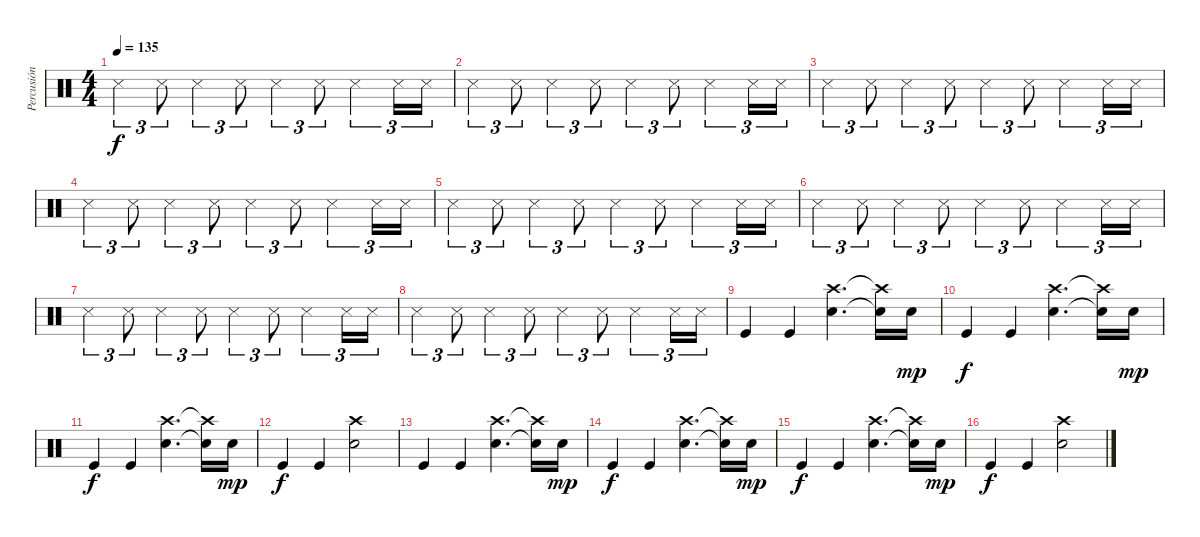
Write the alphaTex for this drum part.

\track ("Percusión" "Percusión") {instrument percussion}
\staff {score}
\articulation defaults
\ts (4 4)
\tempo 135
\clef neutral
\ks c "Snare (side stick) 3".4{tu (3 2) dy f} "Snare (side stick) 3".8{tu (3 2)} "Snare (side stick) 3".4{tu (3 2)} "Snare (side stick) 3".8{tu (3 2)} "Snare (side stick) 3".4{tu (3 2)} "Snare (side stick) 3".8{tu (3 2)} "Snare (side stick) 3".4{tu (3 2)} "Snare (side stick) 3".16{tu (3 2)} "Snare (side stick) 3".16{tu (3 2)}
|
"Snare (side stick) 3".4{tu (3 2)} "Snare (side stick) 3".8{tu (3 2)} "Snare (side stick) 3".4{tu (3 2)} "Snare (side stick) 3".8{tu (3 2)} "Snare (side stick) 3".4{tu (3 2)} "Snare (side stick) 3".8{tu (3 2)} "Snare (side stick) 3".4{tu (3 2)} "Snare (side stick) 3".16{tu (3 2)} "Snare (side stick) 3".16{tu (3 2)} |
"Snare (side stick) 3".4{tu (3 2)} "Snare (side stick) 3".8{tu (3 2)} "Snare (side stick) 3".4{tu (3 2)} "Snare (side stick) 3".8{tu (3 2)} "Snare (side stick) 3".4{tu (3 2)} "Snare (side stick) 3".8{tu (3 2)} "Snare (side stick) 3".4{tu (3 2)} "Snare (side stick) 3".16{tu (3 2)} "Snare (side stick) 3".16{tu (3 2)} |
"Snare (side stick) 3".4{tu (3 2)} "Snare (side stick) 3".8{tu (3 2)} "Snare (side stick) 3".4{tu (3 2)} "Snare (side stick) 3".8{tu (3 2)} "Snare (side stick) 3".4{tu (3 2)} "Snare (side stick) 3".8{tu (3 2)} "Snare (side stick) 3".4{tu (3 2)} "Snare (side stick) 3".16{tu (3 2)} "Snare (side stick) 3".16{tu (3 2)} |
"Snare (side stick) 3".4{tu (3 2)} "Snare (side stick) 3".8{tu (3 2)} "Snare (side stick) 3".4{tu (3 2)} "Snare (side stick) 3".8{tu (3 2)} "Snare (side stick) 3".4{tu (3 2)} "Snare (side stick) 3".8{tu (3 2)} "Snare (side stick) 3".4{tu (3 2)} "Snare (side stick) 3".16{tu (3 2)} "Snare (side stick) 3".16{tu (3 2)} |
"Snare (side stick) 3".4{tu (3 2)} "Snare (side stick) 3".8{tu (3 2)} "Snare (side stick) 3".4{tu (3 2)} "Snare (side stick) 3".8{tu (3 2)} "Snare (side stick) 3".4{tu (3 2)} "Snare (side stick) 3".8{tu (3 2)} "Snare (side stick) 3".4{tu (3 2)} "Snare (side stick) 3".16{tu (3 2)} "Snare (side stick) 3".16{tu (3 2)} |
"Snare (side stick) 3".4{tu (3 2)} "Snare (side stick) 3".8{tu (3 2)} "Snare (side stick) 3".4{tu (3 2)} "Snare (side stick) 3".8{tu (3 2)} "Snare (side stick) 3".4{tu (3 2)} "Snare (side stick) 3".8{tu (3 2)} "Snare (side stick) 3".4{tu (3 2)} "Snare (side stick) 3".16{tu (3 2)} "Snare (side stick) 3".16{tu (3 2)} |
"Snare (side stick) 3".4{tu (3 2)} "Snare (side stick) 3".8{tu (3 2)} "Snare (side stick) 3".4{tu (3 2)} "Snare (side stick) 3".8{tu (3 2)} "Snare (side stick) 3".4{tu (3 2)} "Snare (side stick) 3".8{tu (3 2)} "Snare (side stick) 3".4{tu (3 2)} "Snare (side stick) 3".16{tu (3 2)} "Snare (side stick) 3".16{tu (3 2)} |
"Kick (hit)".4 "Kick (hit)".4 ("Crash high (hit)" "Snare (hit) 2").4{d} ("Crash high (hit)"{t} "Snare (hit) 2"{t}).16 "Snare (hit) 2".16{dy mp} |
"Kick (hit)".4{dy f} "Kick (hit)".4 ("Crash high (hit)" "Snare (hit) 2").4{d} ("Crash high (hit)"{t} "Snare (hit) 2"{t}).16 "Snare (hit) 2".16{dy mp} |
"Kick (hit)".4{dy f} "Kick (hit)".4 ("Crash high (hit)" "Snare (hit) 2").4{d} ("Crash high (hit)"{t} "Snare (hit) 2"{t}).16 "Snare (hit) 2".16{dy mp} |
"Kick (hit)".4{dy f} "Kick (hit)".4 ("Crash high (hit)" "Snare (hit) 2").2 |
"Kick (hit)".4 "Kick (hit)".4 ("Crash high (hit)" "Snare (hit) 2").4{d} ("Crash high (hit)"{t} "Snare (hit) 2"{t}).16 "Snare (hit) 2".16{dy mp} |
"Kick (hit)".4{dy f} "Kick (hit)".4 ("Crash high (hit)" "Snare (hit) 2").4{d} ("Crash high (hit)"{t} "Snare (hit) 2"{t}).16 "Snare (hit) 2".16{dy mp} |
"Kick (hit)".4{dy f} "Kick (hit)".4 ("Crash high (hit)" "Snare (hit) 2").4{d} ("Crash high (hit)"{t} "Snare (hit) 2"{t}).16 "Snare (hit) 2".16{dy mp} |
"Kick (hit)".4{dy f} "Kick (hit)".4 ("Crash high (hit)" "Snare (hit) 2").2
